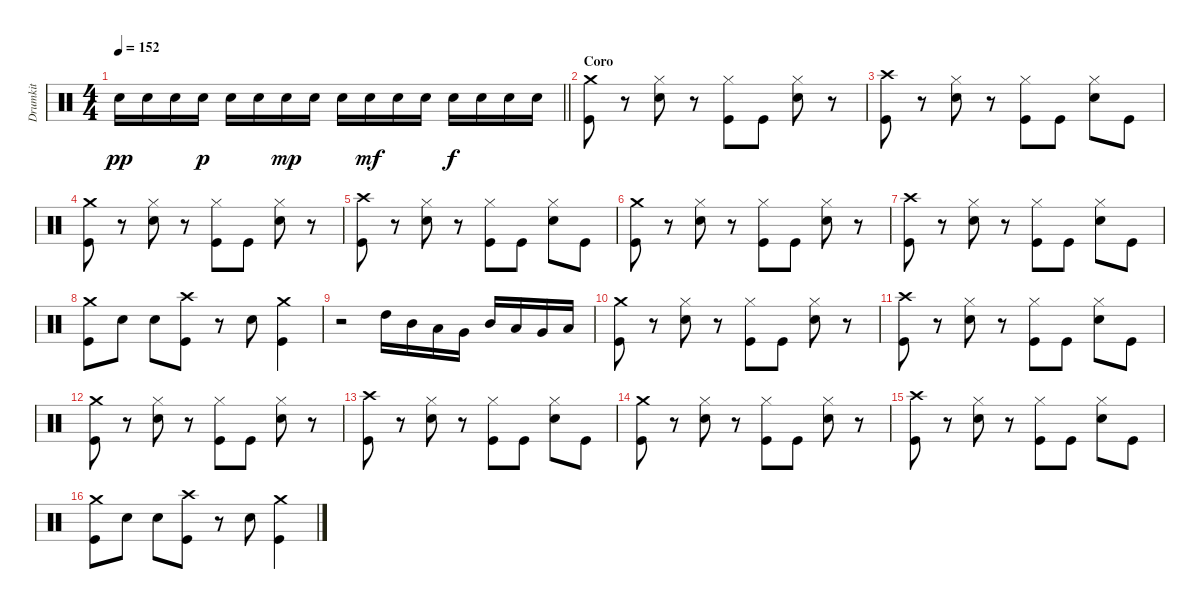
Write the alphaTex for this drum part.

\track ("Drumkit" "Drumkit") {instrument percussion}
\staff {score}
\articulation defaults
\ts (4 4)
\tempo 152
\clef neutral
\barLineRight lightlight
\ks c "Snare (hit) 2".16{dy pp} "Snare (hit) 2".16 "Snare (hit) 2".16 "Snare (hit) 2".16{dy p} "Snare (hit) 2".16 "Snare (hit) 2".16 "Snare (hit) 2".16{dy mp} "Snare (hit) 2".16 "Snare (hit) 2".16 "Snare (hit) 2".16{dy mf} "Snare (hit) 2".16 "Snare (hit) 2".16 "Snare (hit) 2".16{dy f} "Snare (hit) 2".16 "Snare (hit) 2".16 "Snare (hit) 2".16
|
\section ("" "Coro")
("Crash medium (hit)" "Kick (hit)").8 r.8 ("Hi-Hat (closed)" "Snare (hit) 2").8 r.8 ("Hi-Hat (closed)" "Kick (hit)").8 "Kick (hit)".8 ("Hi-Hat (closed)" "Snare (hit) 2").8 r.8 |
("Crash high (hit)" "Kick (hit)").8 r.8 ("Hi-Hat (closed)" "Snare (hit) 2").8 r.8 ("Hi-Hat (closed)" "Kick (hit)").8 "Kick (hit)".8 ("Hi-Hat (closed)" "Snare (hit) 2").8 "Kick (hit)".8 |
("Crash medium (hit)" "Kick (hit)").8 r.8 ("Hi-Hat (closed)" "Snare (hit) 2").8 r.8 ("Hi-Hat (closed)" "Kick (hit)").8 "Kick (hit)".8 ("Hi-Hat (closed)" "Snare (hit) 2").8 r.8 |
("Crash high (hit)" "Kick (hit)").8 r.8 ("Hi-Hat (closed)" "Snare (hit) 2").8 r.8 ("Hi-Hat (closed)" "Kick (hit)").8 "Kick (hit)".8 ("Hi-Hat (closed)" "Snare (hit) 2").8 "Kick (hit)".8 |
("Crash medium (hit)" "Kick (hit)").8 r.8 ("Hi-Hat (closed)" "Snare (hit) 2").8 r.8 ("Hi-Hat (closed)" "Kick (hit)").8 "Kick (hit)".8 ("Hi-Hat (closed)" "Snare (hit) 2").8 r.8 |
("Crash high (hit)" "Kick (hit)").8 r.8 ("Hi-Hat (closed)" "Snare (hit) 2").8 r.8 ("Hi-Hat (closed)" "Kick (hit)").8 "Kick (hit)".8 ("Hi-Hat (closed)" "Snare (hit) 2").8 "Kick (hit)".8 |
("Crash medium (hit)" "Kick (hit)").8 "Snare (hit) 2".8 "Snare (hit) 2".8 ("Crash high (hit)" "Kick (hit)").8 r.8 "Snare (hit) 2".8 ("Crash medium (hit)" "Kick (hit)").4 |
r.2 "High Tom (hit)".16 "Mid Tom (hit)".16 "Low Tom (hit)".16 "Very Low Tom (hit)".16 "Mid Tom (hit)".16 "Low Tom (hit)".16 "Very Low Tom (hit)".16 "Low Floor Tom (hit)".16 |
("Crash medium (hit)" "Kick (hit)").8 r.8 ("Hi-Hat (closed)" "Snare (hit) 2").8 r.8 ("Hi-Hat (closed)" "Kick (hit)").8 "Kick (hit)".8 ("Hi-Hat (closed)" "Snare (hit) 2").8 r.8 |
("Crash high (hit)" "Kick (hit)").8 r.8 ("Hi-Hat (closed)" "Snare (hit) 2").8 r.8 ("Hi-Hat (closed)" "Kick (hit)").8 "Kick (hit)".8 ("Hi-Hat (closed)" "Snare (hit) 2").8 "Kick (hit)".8 |
("Crash medium (hit)" "Kick (hit)").8 r.8 ("Hi-Hat (closed)" "Snare (hit) 2").8 r.8 ("Hi-Hat (closed)" "Kick (hit)").8 "Kick (hit)".8 ("Hi-Hat (closed)" "Snare (hit) 2").8 r.8 |
("Crash high (hit)" "Kick (hit)").8 r.8 ("Hi-Hat (closed)" "Snare (hit) 2").8 r.8 ("Hi-Hat (closed)" "Kick (hit)").8 "Kick (hit)".8 ("Hi-Hat (closed)" "Snare (hit) 2").8 "Kick (hit)".8 |
("Crash medium (hit)" "Kick (hit)").8 r.8 ("Hi-Hat (closed)" "Snare (hit) 2").8 r.8 ("Hi-Hat (closed)" "Kick (hit)").8 "Kick (hit)".8 ("Hi-Hat (closed)" "Snare (hit) 2").8 r.8 |
("Crash high (hit)" "Kick (hit)").8 r.8 ("Hi-Hat (closed)" "Snare (hit) 2").8 r.8 ("Hi-Hat (closed)" "Kick (hit)").8 "Kick (hit)".8 ("Hi-Hat (closed)" "Snare (hit) 2").8 "Kick (hit)".8 |
("Crash medium (hit)" "Kick (hit)").8 "Snare (hit) 2".8 "Snare (hit) 2".8 ("Crash high (hit)" "Kick (hit)").8 r.8 "Snare (hit) 2".8 ("Crash medium (hit)" "Kick (hit)").4
